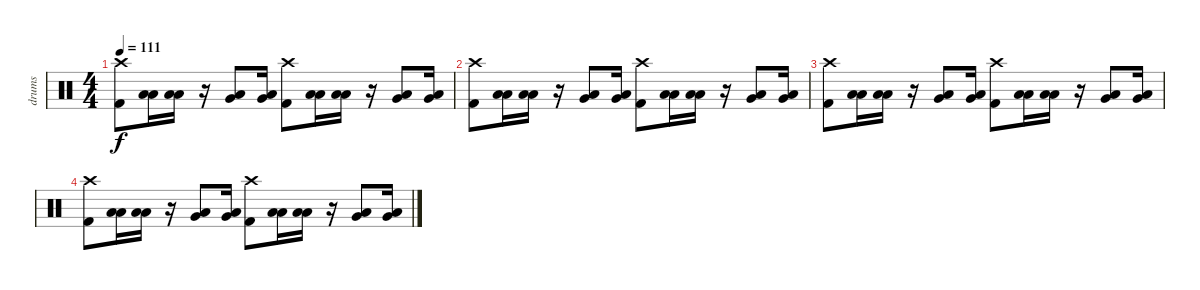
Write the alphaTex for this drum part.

\track ("drums" "drums") {instrument percussion}
\staff {score}
\articulation defaults
\ts (4 4)
\tempo 111
\clef neutral
\ks c
("Crash high (hit)" "Kick (hit) 2").8{dy f} ("Low Floor Tom (hit)" "Low Tom (hit)").16 ("Low Floor Tom (hit)" "Low Tom (hit)").16 r.16 ("Low Tom (hit)" "Very Low Tom (hit)").8 ("Very Low Tom (hit)" "Low Floor Tom (hit)").16 ("Crash high (hit)" "Kick (hit) 2").8 ("Low Floor Tom (hit)" "Low Tom (hit)").16 ("Low Floor Tom (hit)" "Low Tom (hit)").16 r.16 ("Low Tom (hit)" "Very Low Tom (hit)").8 ("Very Low Tom (hit)" "Low Floor Tom (hit)").16 |
("Crash high (hit)" "Kick (hit) 2").8 ("Low Floor Tom (hit)" "Low Tom (hit)").16 ("Low Floor Tom (hit)" "Low Tom (hit)").16 r.16 ("Low Tom (hit)" "Very Low Tom (hit)").8 ("Very Low Tom (hit)" "Low Floor Tom (hit)").16 ("Crash high (hit)" "Kick (hit) 2").8 ("Low Floor Tom (hit)" "Low Tom (hit)").16 ("Low Floor Tom (hit)" "Low Tom (hit)").16 r.16 ("Low Tom (hit)" "Very Low Tom (hit)").8 ("Very Low Tom (hit)" "Low Floor Tom (hit)").16 |
("Crash high (hit)" "Kick (hit) 2").8 ("Low Floor Tom (hit)" "Low Tom (hit)").16 ("Low Floor Tom (hit)" "Low Tom (hit)").16 r.16 ("Low Tom (hit)" "Very Low Tom (hit)").8 ("Very Low Tom (hit)" "Low Floor Tom (hit)").16 ("Crash high (hit)" "Kick (hit) 2").8 ("Low Floor Tom (hit)" "Low Tom (hit)").16 ("Low Floor Tom (hit)" "Low Tom (hit)").16 r.16 ("Low Tom (hit)" "Very Low Tom (hit)").8 ("Very Low Tom (hit)" "Low Floor Tom (hit)").16 |
("Crash high (hit)" "Kick (hit) 2").8 ("Low Floor Tom (hit)" "Low Tom (hit)").16 ("Low Floor Tom (hit)" "Low Tom (hit)").16 r.16 ("Low Tom (hit)" "Very Low Tom (hit)").8 ("Very Low Tom (hit)" "Low Floor Tom (hit)").16 ("Crash high (hit)" "Kick (hit) 2").8 ("Low Floor Tom (hit)" "Low Tom (hit)").16 ("Low Floor Tom (hit)" "Low Tom (hit)").16 r.16 ("Low Tom (hit)" "Very Low Tom (hit)").8 ("Very Low Tom (hit)" "Low Floor Tom (hit)").16
